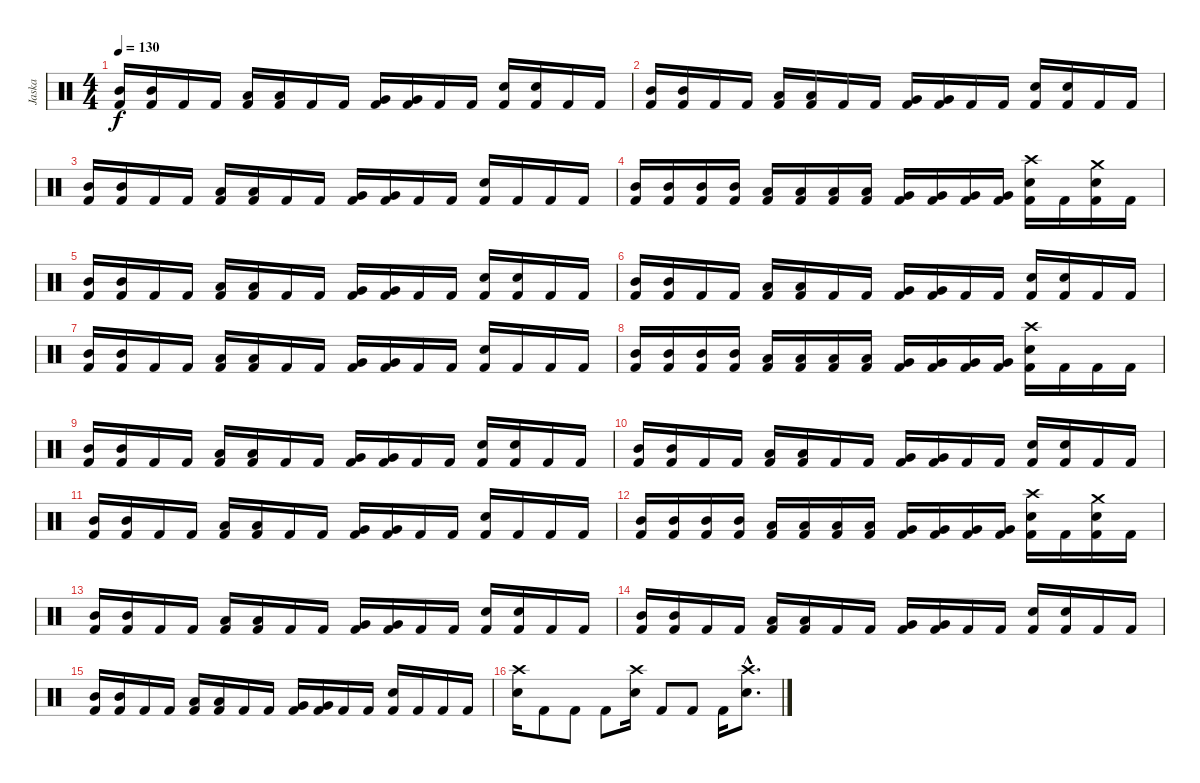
\track ("Jaska " "Jaska ") {instrument percussion}
\staff {score}
\articulation defaults
\ts (4 4)
\tempo 130
\clef neutral
\ks c
("Mid Tom (hit)" "Kick (hit) 2").16{dy f} ("Mid Tom (hit)" "Kick (hit) 2").16 "Kick (hit) 2".16 "Kick (hit) 2".16 ("Low Tom (hit)" "Kick (hit) 2").16 ("Low Tom (hit)" "Kick (hit) 2").16 "Kick (hit) 2".16 "Kick (hit) 2".16 ("Very Low Tom (hit)" "Kick (hit) 2").16 ("Very Low Tom (hit)" "Kick (hit) 2").16 "Kick (hit) 2".16 "Kick (hit) 2".16 ("Electric Snare (hit)" "Kick (hit) 2").16 ("Electric Snare (hit)" "Kick (hit) 2").16 "Kick (hit) 2".16 "Kick (hit) 2".16 |
("Mid Tom (hit)" "Kick (hit) 2").16 ("Mid Tom (hit)" "Kick (hit) 2").16 "Kick (hit) 2".16 "Kick (hit) 2".16 ("Low Tom (hit)" "Kick (hit) 2").16 ("Low Tom (hit)" "Kick (hit) 2").16 "Kick (hit) 2".16 "Kick (hit) 2".16 ("Very Low Tom (hit)" "Kick (hit) 2").16 ("Very Low Tom (hit)" "Kick (hit) 2").16 "Kick (hit) 2".16 "Kick (hit) 2".16 ("Electric Snare (hit)" "Kick (hit) 2").16 ("Electric Snare (hit)" "Kick (hit) 2").16 "Kick (hit) 2".16 "Kick (hit) 2".16 |
("Mid Tom (hit)" "Kick (hit) 2").16 ("Mid Tom (hit)" "Kick (hit) 2").16 "Kick (hit) 2".16 "Kick (hit) 2".16 ("Low Tom (hit)" "Kick (hit) 2").16 ("Low Tom (hit)" "Kick (hit) 2").16 "Kick (hit) 2".16 "Kick (hit) 2".16 ("Very Low Tom (hit)" "Kick (hit) 2").16 ("Very Low Tom (hit)" "Kick (hit) 2").16 "Kick (hit) 2".16 "Kick (hit) 2".16 ("Electric Snare (hit)" "Kick (hit) 2").16 "Kick (hit) 2".16 "Kick (hit) 2".16 "Kick (hit) 2".16 |
("Mid Tom (hit)" "Kick (hit) 2").16 ("Mid Tom (hit)" "Kick (hit) 2").16 ("Mid Tom (hit)" "Kick (hit) 2").16 ("Mid Tom (hit)" "Kick (hit) 2").16 ("Low Tom (hit)" "Kick (hit) 2").16 ("Low Tom (hit)" "Kick (hit) 2").16 ("Low Tom (hit)" "Kick (hit) 2").16 ("Low Tom (hit)" "Kick (hit) 2").16 ("Very Low Tom (hit)" "Kick (hit) 2").16 ("Very Low Tom (hit)" "Kick (hit) 2").16 ("Very Low Tom (hit)" "Kick (hit) 2").16 ("Very Low Tom (hit)" "Kick (hit) 2").16 ("Crash high (hit)" "Electric Snare (hit)" "Kick (hit) 2").16 "Kick (hit) 2".16 ("Crash medium (hit)" "Electric Snare (hit)" "Kick (hit) 2").16 "Kick (hit) 2".16 |
("Mid Tom (hit)" "Kick (hit) 2").16 ("Mid Tom (hit)" "Kick (hit) 2").16 "Kick (hit) 2".16 "Kick (hit) 2".16 ("Low Tom (hit)" "Kick (hit) 2").16 ("Low Tom (hit)" "Kick (hit) 2").16 "Kick (hit) 2".16 "Kick (hit) 2".16 ("Very Low Tom (hit)" "Kick (hit) 2").16 ("Very Low Tom (hit)" "Kick (hit) 2").16 "Kick (hit) 2".16 "Kick (hit) 2".16 ("Electric Snare (hit)" "Kick (hit) 2").16 ("Electric Snare (hit)" "Kick (hit) 2").16 "Kick (hit) 2".16 "Kick (hit) 2".16 |
("Mid Tom (hit)" "Kick (hit) 2").16 ("Mid Tom (hit)" "Kick (hit) 2").16 "Kick (hit) 2".16 "Kick (hit) 2".16 ("Low Tom (hit)" "Kick (hit) 2").16 ("Low Tom (hit)" "Kick (hit) 2").16 "Kick (hit) 2".16 "Kick (hit) 2".16 ("Very Low Tom (hit)" "Kick (hit) 2").16 ("Very Low Tom (hit)" "Kick (hit) 2").16 "Kick (hit) 2".16 "Kick (hit) 2".16 ("Electric Snare (hit)" "Kick (hit) 2").16 ("Electric Snare (hit)" "Kick (hit) 2").16 "Kick (hit) 2".16 "Kick (hit) 2".16 |
("Mid Tom (hit)" "Kick (hit) 2").16 ("Mid Tom (hit)" "Kick (hit) 2").16 "Kick (hit) 2".16 "Kick (hit) 2".16 ("Low Tom (hit)" "Kick (hit) 2").16 ("Low Tom (hit)" "Kick (hit) 2").16 "Kick (hit) 2".16 "Kick (hit) 2".16 ("Very Low Tom (hit)" "Kick (hit) 2").16 ("Very Low Tom (hit)" "Kick (hit) 2").16 "Kick (hit) 2".16 "Kick (hit) 2".16 ("Electric Snare (hit)" "Kick (hit) 2").16 "Kick (hit) 2".16 "Kick (hit) 2".16 "Kick (hit) 2".16 |
("Mid Tom (hit)" "Kick (hit) 2").16 ("Mid Tom (hit)" "Kick (hit) 2").16 ("Mid Tom (hit)" "Kick (hit) 2").16 ("Mid Tom (hit)" "Kick (hit) 2").16 ("Low Tom (hit)" "Kick (hit) 2").16 ("Low Tom (hit)" "Kick (hit) 2").16 ("Low Tom (hit)" "Kick (hit) 2").16 ("Low Tom (hit)" "Kick (hit) 2").16 ("Very Low Tom (hit)" "Kick (hit) 2").16 ("Very Low Tom (hit)" "Kick (hit) 2").16 ("Very Low Tom (hit)" "Kick (hit) 2").16 ("Very Low Tom (hit)" "Kick (hit) 2").16 ("Crash high (hit)" "Electric Snare (hit)" "Kick (hit) 2").16 "Kick (hit) 2".16 "Kick (hit) 2".16 "Kick (hit) 2".16 |
("Mid Tom (hit)" "Kick (hit) 2").16 ("Mid Tom (hit)" "Kick (hit) 2").16 "Kick (hit) 2".16 "Kick (hit) 2".16 ("Low Tom (hit)" "Kick (hit) 2").16 ("Low Tom (hit)" "Kick (hit) 2").16 "Kick (hit) 2".16 "Kick (hit) 2".16 ("Very Low Tom (hit)" "Kick (hit) 2").16 ("Very Low Tom (hit)" "Kick (hit) 2").16 "Kick (hit) 2".16 "Kick (hit) 2".16 ("Electric Snare (hit)" "Kick (hit) 2").16 ("Electric Snare (hit)" "Kick (hit) 2").16 "Kick (hit) 2".16 "Kick (hit) 2".16 |
("Mid Tom (hit)" "Kick (hit) 2").16 ("Mid Tom (hit)" "Kick (hit) 2").16 "Kick (hit) 2".16 "Kick (hit) 2".16 ("Low Tom (hit)" "Kick (hit) 2").16 ("Low Tom (hit)" "Kick (hit) 2").16 "Kick (hit) 2".16 "Kick (hit) 2".16 ("Very Low Tom (hit)" "Kick (hit) 2").16 ("Very Low Tom (hit)" "Kick (hit) 2").16 "Kick (hit) 2".16 "Kick (hit) 2".16 ("Electric Snare (hit)" "Kick (hit) 2").16 ("Electric Snare (hit)" "Kick (hit) 2").16 "Kick (hit) 2".16 "Kick (hit) 2".16 |
("Mid Tom (hit)" "Kick (hit) 2").16 ("Mid Tom (hit)" "Kick (hit) 2").16 "Kick (hit) 2".16 "Kick (hit) 2".16 ("Low Tom (hit)" "Kick (hit) 2").16 ("Low Tom (hit)" "Kick (hit) 2").16 "Kick (hit) 2".16 "Kick (hit) 2".16 ("Very Low Tom (hit)" "Kick (hit) 2").16 ("Very Low Tom (hit)" "Kick (hit) 2").16 "Kick (hit) 2".16 "Kick (hit) 2".16 ("Electric Snare (hit)" "Kick (hit) 2").16 "Kick (hit) 2".16 "Kick (hit) 2".16 "Kick (hit) 2".16 |
("Mid Tom (hit)" "Kick (hit) 2").16 ("Mid Tom (hit)" "Kick (hit) 2").16 ("Mid Tom (hit)" "Kick (hit) 2").16 ("Mid Tom (hit)" "Kick (hit) 2").16 ("Low Tom (hit)" "Kick (hit) 2").16 ("Low Tom (hit)" "Kick (hit) 2").16 ("Low Tom (hit)" "Kick (hit) 2").16 ("Low Tom (hit)" "Kick (hit) 2").16 ("Very Low Tom (hit)" "Kick (hit) 2").16 ("Very Low Tom (hit)" "Kick (hit) 2").16 ("Very Low Tom (hit)" "Kick (hit) 2").16 ("Very Low Tom (hit)" "Kick (hit) 2").16 ("Crash high (hit)" "Electric Snare (hit)" "Kick (hit) 2").16 "Kick (hit) 2".16 ("Crash medium (hit)" "Electric Snare (hit)" "Kick (hit) 2").16 "Kick (hit) 2".16 |
("Mid Tom (hit)" "Kick (hit) 2").16 ("Mid Tom (hit)" "Kick (hit) 2").16 "Kick (hit) 2".16 "Kick (hit) 2".16 ("Low Tom (hit)" "Kick (hit) 2").16 ("Low Tom (hit)" "Kick (hit) 2").16 "Kick (hit) 2".16 "Kick (hit) 2".16 ("Very Low Tom (hit)" "Kick (hit) 2").16 ("Very Low Tom (hit)" "Kick (hit) 2").16 "Kick (hit) 2".16 "Kick (hit) 2".16 ("Electric Snare (hit)" "Kick (hit) 2").16 ("Electric Snare (hit)" "Kick (hit) 2").16 "Kick (hit) 2".16 "Kick (hit) 2".16 |
("Mid Tom (hit)" "Kick (hit) 2").16 ("Mid Tom (hit)" "Kick (hit) 2").16 "Kick (hit) 2".16 "Kick (hit) 2".16 ("Low Tom (hit)" "Kick (hit) 2").16 ("Low Tom (hit)" "Kick (hit) 2").16 "Kick (hit) 2".16 "Kick (hit) 2".16 ("Very Low Tom (hit)" "Kick (hit) 2").16 ("Very Low Tom (hit)" "Kick (hit) 2").16 "Kick (hit) 2".16 "Kick (hit) 2".16 ("Electric Snare (hit)" "Kick (hit) 2").16 ("Electric Snare (hit)" "Kick (hit) 2").16 "Kick (hit) 2".16 "Kick (hit) 2".16 |
("Mid Tom (hit)" "Kick (hit) 2").16 ("Mid Tom (hit)" "Kick (hit) 2").16 "Kick (hit) 2".16 "Kick (hit) 2".16 ("Low Tom (hit)" "Kick (hit) 2").16 ("Low Tom (hit)" "Kick (hit) 2").16 "Kick (hit) 2".16 "Kick (hit) 2".16 ("Very Low Tom (hit)" "Kick (hit) 2").16 ("Very Low Tom (hit)" "Kick (hit) 2").16 "Kick (hit) 2".16 "Kick (hit) 2".16 ("Electric Snare (hit)" "Kick (hit) 2").16 "Kick (hit) 2".16 "Kick (hit) 2".16 "Kick (hit) 2".16 |
("Crash high (hit)" "Electric Snare (hit)").16 "Kick (hit) 2".8 "Kick (hit) 2".8 "Kick (hit) 2".8 ("Crash high (hit)" "Electric Snare (hit)").16 "Kick (hit) 2".8 "Kick (hit) 2".8 "Kick (hit) 2".16 ("Crash high (hit)"{hac} "Electric Snare (hit)"{hac}).8{d}
